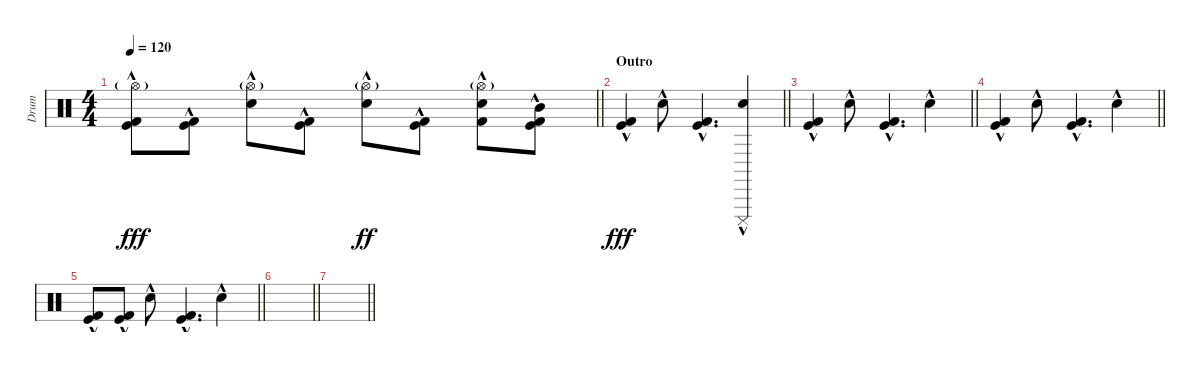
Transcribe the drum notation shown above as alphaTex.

\track ("Drum" "Drum") {instrument percussion}
\staff {score}
\articulation defaults
\ts (4 4)
\tempo 120
\clef neutral
\barLineRight lightlight
\ks c
("Hi-Hat (open)"{g} "Kick (hit) 2"{hac} "Kick (hit)"{hac}).8{dy fff} ("Kick (hit) 2"{hac} "Kick (hit)"{hac}).8 ("Hi-Hat (open)"{g} "Snare (hit) 2"{hac}).8 ("Kick (hit) 2"{hac} "Kick (hit)"{hac}).8 ("Hi-Hat (open)"{g} "Snare (hit) 2"{hac}).8{dy ff} ("Kick (hit) 2"{hac} "Kick (hit)"{hac}).8 ("Hi-Hat (open)"{g} "Snare (hit) 2"{hac} "Kick (hit) 2"{hac}).8 ("Mid Tom (hit)"{hac} "Kick (hit) 2"{hac} "Kick (hit)"{hac}).8 |
\section ("" "Outro")
\barLineRight lightlight
("Kick (hit) 2"{hac} "Kick (hit)"{hac}).4{dy fff} "Snare (hit) 2"{hac}.8 ("Kick (hit) 2"{hac} "Kick (hit)"{hac}).4{d} ("Cuica (mute)" "Snare (hit) 2"{hac}).4 |
\barLineRight lightlight
("Kick (hit) 2"{hac} "Kick (hit)"{hac}).4 "Snare (hit) 2"{hac}.8 ("Kick (hit) 2"{hac} "Kick (hit)"{hac}).4{d} "Snare (hit) 2"{hac}.4 |
\barLineRight lightlight
("Kick (hit) 2"{hac} "Kick (hit)"{hac}).4 "Snare (hit) 2"{hac}.8 ("Kick (hit) 2"{hac} "Kick (hit)"{hac}).4{d} "Snare (hit) 2"{hac}.4 |
\barLineRight lightlight
("Kick (hit) 2"{hac} "Kick (hit)"{hac}).8 ("Kick (hit) 2"{hac} "Kick (hit)"{hac}).8 "Snare (hit) 2"{hac}.8 ("Kick (hit) 2"{hac} "Kick (hit)"{hac}).4{d} "Snare (hit) 2"{hac}.4 |
\barLineRight lightlight
|
\barLineRight lightlight
